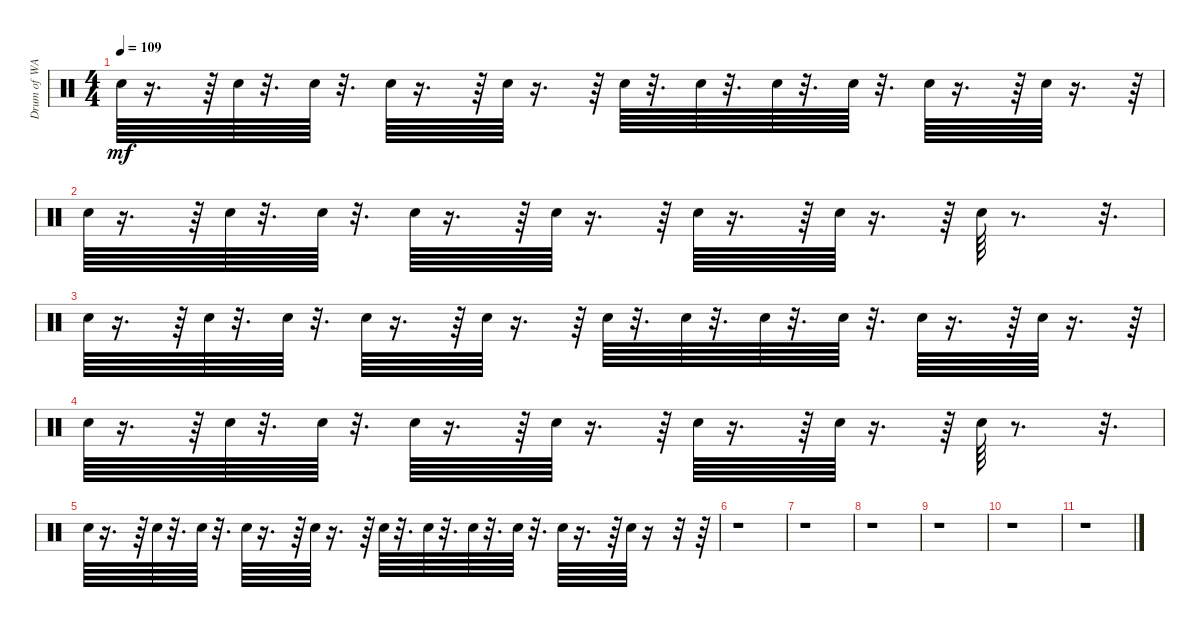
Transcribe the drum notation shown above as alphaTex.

\track ("Drum of WAR" "Drum of WA") {instrument percussion}
\staff {score}
\articulation defaults
\ts (4 4)
\tempo 109
\clef neutral
\ks c "Snare (hit) 2".64{dy mf}
r.16{d} r.64 "Snare (hit) 2".64 r.32{d} "Snare (hit) 2".64 r.32{d} "Snare (hit) 2".64 r.16{d} r.64 "Snare (hit) 2".64 r.16{d} r.64 "Snare (hit) 2".64 r.32{d} "Snare (hit) 2".64 r.32{d} "Snare (hit) 2".64 r.32{d} "Snare (hit) 2".64 r.32{d} "Snare (hit) 2".64 r.16{d} r.64 "Snare (hit) 2".64 r.16{d} r.64 |
"Snare (hit) 2".64 r.16{d} r.64 "Snare (hit) 2".64 r.32{d} "Snare (hit) 2".64 r.32{d} "Snare (hit) 2".64 r.16{d} r.64 "Snare (hit) 2".64 r.16{d} r.64 "Snare (hit) 2".64 r.16{d} r.64 "Snare (hit) 2".64 r.16{d} r.64 "Snare (hit) 2".64 r.8{d} r.32{d} |
"Snare (hit) 2".64 r.16{d} r.64 "Snare (hit) 2".64 r.32{d} "Snare (hit) 2".64 r.32{d} "Snare (hit) 2".64 r.16{d} r.64 "Snare (hit) 2".64 r.16{d} r.64 "Snare (hit) 2".64 r.32{d} "Snare (hit) 2".64 r.32{d} "Snare (hit) 2".64 r.32{d} "Snare (hit) 2".64 r.32{d} "Snare (hit) 2".64 r.16{d} r.64 "Snare (hit) 2".64 r.16{d} r.64 |
"Snare (hit) 2".64 r.16{d} r.64 "Snare (hit) 2".64 r.32{d} "Snare (hit) 2".64 r.32{d} "Snare (hit) 2".64 r.16{d} r.64 "Snare (hit) 2".64 r.16{d} r.64 "Snare (hit) 2".64 r.16{d} r.64 "Snare (hit) 2".64 r.16{d} r.64 "Snare (hit) 2".64 r.8{d} r.32{d} |
"Snare (hit) 2".64 r.16{d} r.64 "Snare (hit) 2".64 r.32{d} "Snare (hit) 2".64 r.32{d} "Snare (hit) 2".64 r.16{d} r.64 "Snare (hit) 2".64 r.16{d} r.64 "Snare (hit) 2".64 r.32{d} "Snare (hit) 2".64 r.32{d} "Snare (hit) 2".64 r.32{d} "Snare (hit) 2".64 r.32{d} "Snare (hit) 2".64 r.16{d} r.64 "Snare (hit) 2".64 r.16 r.32 r.64 |
r.1 |
r.1 |
r.1 |
r.1 |
r.1 |
r.1
